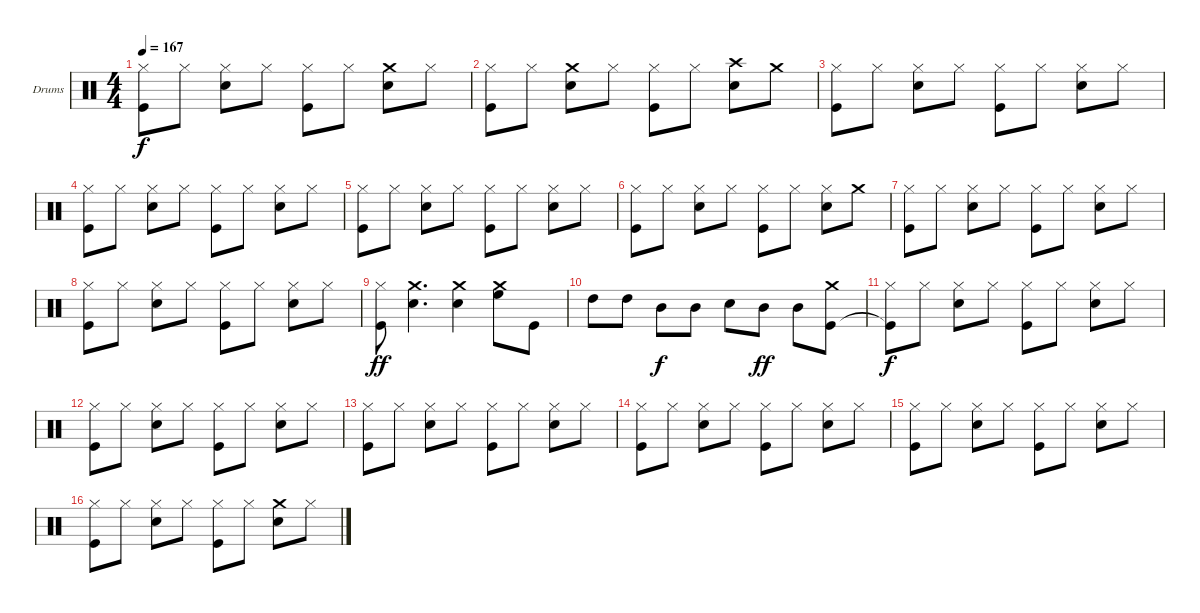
\bracketExtendMode groupsimilarinstruments
\firstSystemTrackNameOrientation horizontal
\otherSystemsTrackNameOrientation horizontal
\track ("Drumkit" "Drums") {instrument percussion}
\staff {score}
\articulation defaults
\ts (4 4)
\tempo 167
\clef neutral
\ks c
("Hi-Hat (closed)" "Kick (hit)").8{dy f} "Hi-Hat (closed)".8 ("Hi-Hat (closed)" "Snare (hit) 2").8 "Hi-Hat (closed)".8 ("Hi-Hat (closed)" "Kick (hit)").8 "Hi-Hat (closed)".8 ("Crash medium (hit)" "Snare (hit) 2").8 "Hi-Hat (closed)".8 |
("Hi-Hat (closed)" "Kick (hit)").8 "Hi-Hat (closed)".8 ("Crash medium (hit)" "Snare (hit) 2").8 "Hi-Hat (closed)".8 ("Hi-Hat (closed)" "Kick (hit)").8 "Hi-Hat (closed)".8 ("Crash high (hit)" "Snare (hit) 2").8 "Crash medium (hit)".8 |
("Hi-Hat (closed)" "Kick (hit)").8 "Hi-Hat (closed)".8 ("Hi-Hat (closed)" "Snare (hit) 2").8 "Hi-Hat (closed)".8 ("Hi-Hat (closed)" "Kick (hit)").8 "Hi-Hat (closed)".8 ("Hi-Hat (closed)" "Snare (hit) 2").8 "Hi-Hat (closed)".8 |
("Hi-Hat (closed)" "Kick (hit)").8 "Hi-Hat (closed)".8 ("Hi-Hat (closed)" "Snare (hit) 2").8 "Hi-Hat (closed)".8 ("Hi-Hat (closed)" "Kick (hit)").8 "Hi-Hat (closed)".8 ("Hi-Hat (closed)" "Snare (hit) 2").8 "Hi-Hat (closed)".8 |
("Hi-Hat (closed)" "Kick (hit)").8 "Hi-Hat (closed)".8 ("Hi-Hat (closed)" "Snare (hit) 2").8 "Hi-Hat (closed)".8 ("Hi-Hat (closed)" "Kick (hit)").8 "Hi-Hat (closed)".8 ("Hi-Hat (closed)" "Snare (hit) 2").8 "Hi-Hat (closed)".8 |
("Hi-Hat (closed)" "Kick (hit)").8 "Hi-Hat (closed)".8 ("Hi-Hat (closed)" "Snare (hit) 2").8 "Hi-Hat (closed)".8 ("Hi-Hat (closed)" "Kick (hit)").8 "Hi-Hat (closed)".8 ("Hi-Hat (closed)" "Snare (hit) 2").8 "Crash medium (hit)".8 |
("Hi-Hat (closed)" "Kick (hit)").8 "Hi-Hat (closed)".8 ("Hi-Hat (closed)" "Snare (hit) 2").8 "Hi-Hat (closed)".8 ("Hi-Hat (closed)" "Kick (hit)").8 "Hi-Hat (closed)".8 ("Hi-Hat (closed)" "Snare (hit) 2").8 "Hi-Hat (closed)".8 |
("Hi-Hat (closed)" "Kick (hit)").8 "Hi-Hat (closed)".8 ("Hi-Hat (closed)" "Snare (hit) 2").8 "Hi-Hat (closed)".8 ("Hi-Hat (closed)" "Kick (hit)").8 "Hi-Hat (closed)".8 ("Hi-Hat (closed)" "Snare (hit) 2").8 "Hi-Hat (closed)".8 |
("Hi-Hat (closed)" "Kick (hit)").8{dy ff} ("Crash medium (hit)" "Snare (hit) 2").4{d} ("Crash medium (hit)" "Snare (hit) 2").4 ("Crash medium (hit)" "High Floor Tom (hit)").8 "Kick (hit)".8 |
"High Tom (hit)".8 "High Tom (hit)".8 "Mid Tom (hit)".8{dy f} "Mid Tom (hit)".8 "Snare (hit) 2".8 "Mid Tom (hit)".8{dy ff} "Mid Tom (hit)".8 ("Crash medium (hit)" "Kick (hit)").8 |
("Hi-Hat (closed)" "Kick (hit)"{t}).8{dy f} "Hi-Hat (closed)".8 ("Hi-Hat (closed)" "Snare (hit) 2").8 "Hi-Hat (closed)".8 ("Hi-Hat (closed)" "Kick (hit)").8 "Hi-Hat (closed)".8 ("Hi-Hat (closed)" "Snare (hit) 2").8 "Hi-Hat (closed)".8 |
("Hi-Hat (closed)" "Kick (hit)").8 "Hi-Hat (closed)".8 ("Hi-Hat (closed)" "Snare (hit) 2").8 "Hi-Hat (closed)".8 ("Hi-Hat (closed)" "Kick (hit)").8 "Hi-Hat (closed)".8 ("Hi-Hat (closed)" "Snare (hit) 2").8 "Hi-Hat (closed)".8 |
("Hi-Hat (closed)" "Kick (hit)").8 "Hi-Hat (closed)".8 ("Hi-Hat (closed)" "Snare (hit) 2").8 "Hi-Hat (closed)".8 ("Hi-Hat (closed)" "Kick (hit)").8 "Hi-Hat (closed)".8 ("Hi-Hat (closed)" "Snare (hit) 2").8 "Hi-Hat (closed)".8 |
("Hi-Hat (closed)" "Kick (hit)").8 "Hi-Hat (closed)".8 ("Hi-Hat (closed)" "Snare (hit) 2").8 "Hi-Hat (closed)".8 ("Hi-Hat (closed)" "Kick (hit)").8 "Hi-Hat (closed)".8 ("Hi-Hat (closed)" "Snare (hit) 2").8 "Hi-Hat (closed)".8 |
("Hi-Hat (closed)" "Kick (hit)").8 "Hi-Hat (closed)".8 ("Hi-Hat (closed)" "Snare (hit) 2").8 "Hi-Hat (closed)".8 ("Hi-Hat (closed)" "Kick (hit)").8 "Hi-Hat (closed)".8 ("Hi-Hat (closed)" "Snare (hit) 2").8 "Hi-Hat (closed)".8 |
("Hi-Hat (closed)" "Kick (hit)").8 "Hi-Hat (closed)".8 ("Hi-Hat (closed)" "Snare (hit) 2").8 "Hi-Hat (closed)".8 ("Hi-Hat (closed)" "Kick (hit)").8 "Hi-Hat (closed)".8 ("Crash medium (hit)" "Snare (hit) 2").8 "Hi-Hat (closed)".8
